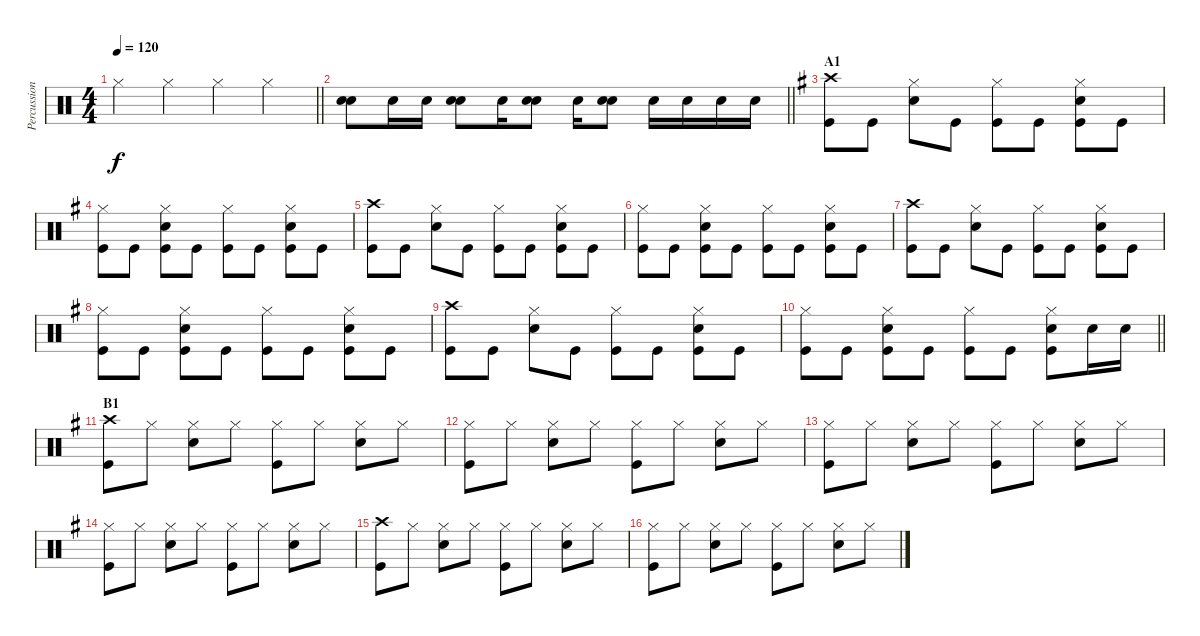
\track ("Percussion" "Percussion") {instrument percussion}
\staff {score}
\articulation defaults
\ts (4 4)
\tempo 120
\clef neutral
\barLineRight lightlight
\ks c "Hi-Hat (closed)".4{dy f} "Hi-Hat (closed)".4 "Hi-Hat (closed)".4 "Hi-Hat (closed)".4
|
\barLineRight lightlight
("Snare (hit) 2" "Electric Snare (hit)").8 "Snare (hit) 2".16 "Snare (hit) 2".16 ("Snare (hit) 2" "Electric Snare (hit)").8 "Snare (hit) 2".16 ("Snare (hit) 2" "Electric Snare (hit)").8 "Snare (hit) 2".16 ("Electric Snare (hit)" "Snare (hit) 2").8 "Snare (hit) 2".16 "Snare (hit) 2".16 "Snare (hit) 2".16 "Snare (hit) 2".16 |
\section ("" "A1")
\ks eminor
("Kick (hit)" "Crash high (hit)").8 "Kick (hit)".8 ("Hi-Hat (closed)" "Snare (hit) 2").8 "Kick (hit)".8 ("Kick (hit)" "Hi-Hat (closed)").8 "Kick (hit)".8 ("Kick (hit)" "Snare (hit) 2" "Hi-Hat (closed)").8 "Kick (hit)".8 |
("Kick (hit)" "Hi-Hat (closed)").8 "Kick (hit)".8 ("Kick (hit)" "Snare (hit) 2" "Hi-Hat (closed)").8 "Kick (hit)".8 ("Kick (hit)" "Hi-Hat (closed)").8 "Kick (hit)".8 ("Kick (hit)" "Snare (hit) 2" "Hi-Hat (closed)").8 "Kick (hit)".8 |
("Kick (hit)" "Crash high (hit)").8 "Kick (hit)".8 ("Hi-Hat (closed)" "Snare (hit) 2").8 "Kick (hit)".8 ("Kick (hit)" "Hi-Hat (closed)").8 "Kick (hit)".8 ("Kick (hit)" "Snare (hit) 2" "Hi-Hat (closed)").8 "Kick (hit)".8 |
("Kick (hit)" "Hi-Hat (closed)").8 "Kick (hit)".8 ("Kick (hit)" "Snare (hit) 2" "Hi-Hat (closed)").8 "Kick (hit)".8 ("Kick (hit)" "Hi-Hat (closed)").8 "Kick (hit)".8 ("Kick (hit)" "Snare (hit) 2" "Hi-Hat (closed)").8 "Kick (hit)".8 |
("Kick (hit)" "Crash high (hit)").8 "Kick (hit)".8 ("Hi-Hat (closed)" "Snare (hit) 2").8 "Kick (hit)".8 ("Kick (hit)" "Hi-Hat (closed)").8 "Kick (hit)".8 ("Kick (hit)" "Snare (hit) 2" "Hi-Hat (closed)").8 "Kick (hit)".8 |
("Kick (hit)" "Hi-Hat (closed)").8 "Kick (hit)".8 ("Kick (hit)" "Snare (hit) 2" "Hi-Hat (closed)").8 "Kick (hit)".8 ("Kick (hit)" "Hi-Hat (closed)").8 "Kick (hit)".8 ("Kick (hit)" "Snare (hit) 2" "Hi-Hat (closed)").8 "Kick (hit)".8 |
("Kick (hit)" "Crash high (hit)").8 "Kick (hit)".8 ("Hi-Hat (closed)" "Snare (hit) 2").8 "Kick (hit)".8 ("Kick (hit)" "Hi-Hat (closed)").8 "Kick (hit)".8 ("Kick (hit)" "Snare (hit) 2" "Hi-Hat (closed)").8 "Kick (hit)".8 |
\barLineRight lightlight
("Kick (hit)" "Hi-Hat (closed)").8 "Kick (hit)".8 ("Kick (hit)" "Snare (hit) 2" "Hi-Hat (closed)").8 "Kick (hit)".8 ("Kick (hit)" "Hi-Hat (closed)").8 "Kick (hit)".8 ("Kick (hit)" "Snare (hit) 2" "Hi-Hat (closed)").8 "Snare (hit) 2".16 "Snare (hit) 2".16 |
\section ("" "B1")
("Crash high (hit)" "Kick (hit)").8 "Hi-Hat (closed)".8 ("Hi-Hat (closed)" "Snare (hit) 2").8 "Hi-Hat (closed)".8 ("Hi-Hat (closed)" "Kick (hit)").8 "Hi-Hat (closed)".8 ("Hi-Hat (closed)" "Snare (hit) 2").8 "Hi-Hat (closed)".8 |
("Hi-Hat (closed)" "Kick (hit)").8 "Hi-Hat (closed)".8 ("Hi-Hat (closed)" "Snare (hit) 2").8 "Hi-Hat (closed)".8 ("Hi-Hat (closed)" "Kick (hit)").8 "Hi-Hat (closed)".8 ("Hi-Hat (closed)" "Snare (hit) 2").8 "Hi-Hat (closed)".8 |
("Hi-Hat (closed)" "Kick (hit)").8 "Hi-Hat (closed)".8 ("Hi-Hat (closed)" "Snare (hit) 2").8 "Hi-Hat (closed)".8 ("Hi-Hat (closed)" "Kick (hit)").8 "Hi-Hat (closed)".8 ("Hi-Hat (closed)" "Snare (hit) 2").8 "Hi-Hat (closed)".8 |
("Hi-Hat (closed)" "Kick (hit)").8 "Hi-Hat (closed)".8 ("Hi-Hat (closed)" "Snare (hit) 2").8 "Hi-Hat (closed)".8 ("Hi-Hat (closed)" "Kick (hit)").8 "Hi-Hat (closed)".8 ("Hi-Hat (closed)" "Snare (hit) 2").8 "Hi-Hat (closed)".8 |
("Crash high (hit)" "Kick (hit)").8 "Hi-Hat (closed)".8 ("Hi-Hat (closed)" "Snare (hit) 2").8 "Hi-Hat (closed)".8 ("Hi-Hat (closed)" "Kick (hit)").8 "Hi-Hat (closed)".8 ("Hi-Hat (closed)" "Snare (hit) 2").8 "Hi-Hat (closed)".8 |
("Hi-Hat (closed)" "Kick (hit)").8 "Hi-Hat (closed)".8 ("Hi-Hat (closed)" "Snare (hit) 2").8 "Hi-Hat (closed)".8 ("Hi-Hat (closed)" "Kick (hit)").8 "Hi-Hat (closed)".8 ("Hi-Hat (closed)" "Snare (hit) 2").8 "Hi-Hat (closed)".8
